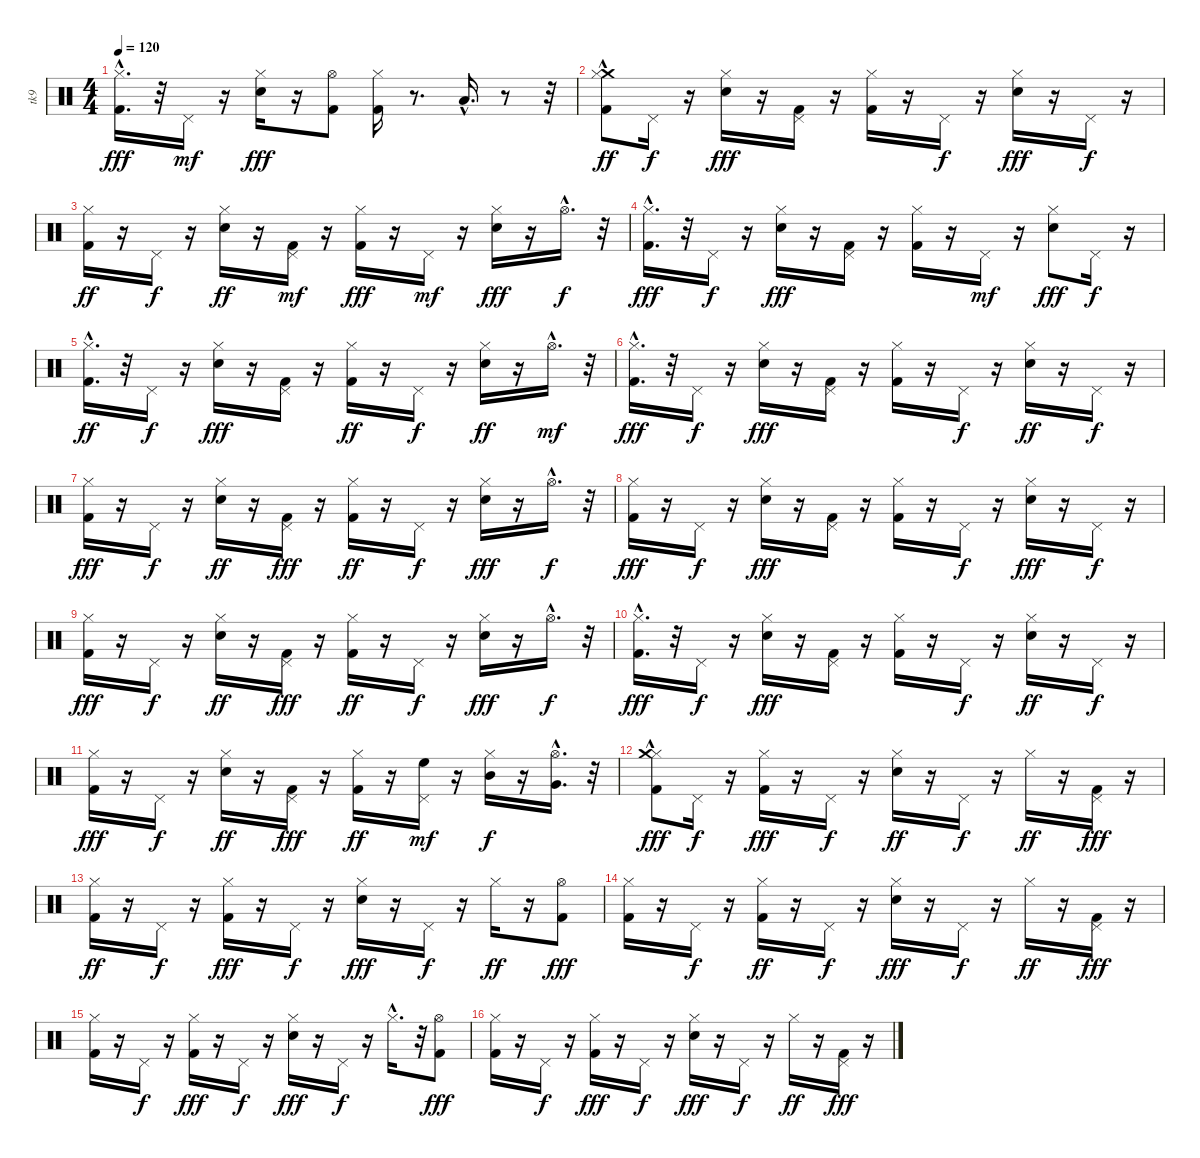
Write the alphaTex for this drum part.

\track ("tk9" "tk9") {instrument percussion}
\staff {score}
\articulation defaults
\ts (4 4)
\tempo 120
\clef neutral
\ks c
("Hi-Hat (closed)" "Kick (hit) 2"{hac}).16{d dy fff} r.32 "Pedal Hi-Hat (hit)".16{dy mf} r.16 ("Snare (hit) 2" "Hi-Hat (closed)").16{dy fff} r.16 ("Kick (hit) 2" "Hi-Hat (open)").8 ("Hi-Hat (closed)" "Kick (hit) 2").16 r.8{d} "Low Tom (hit)"{hac}.16{d} r.8 r.32 |
("Kick (hit) 2"{hac} "Crash medium (hit)" "Hi-Hat (closed)").8{dy ff} "Pedal Hi-Hat (hit)".16{dy f} r.16 ("Hi-Hat (closed)" "Snare (hit) 2").16{dy fff} r.16 ("Pedal Hi-Hat (hit)" "Kick (hit) 2").16 r.16 ("Hi-Hat (closed)" "Kick (hit) 2").16 r.16 "Pedal Hi-Hat (hit)".16{dy f} r.16 ("Hi-Hat (closed)" "Snare (hit) 2").16{dy fff} r.16 "Pedal Hi-Hat (hit)".16{dy f} r.16 |
("Kick (hit) 2" "Hi-Hat (closed)").16{dy ff} r.16 "Pedal Hi-Hat (hit)".16{dy f} r.16 ("Snare (hit) 2" "Hi-Hat (closed)").16{dy ff} r.16 ("Kick (hit) 2" "Pedal Hi-Hat (hit)").16{dy mf} r.16 ("Hi-Hat (closed)" "Kick (hit) 2").16{dy fff} r.16 "Pedal Hi-Hat (hit)".16{dy mf} r.16 ("Hi-Hat (closed)" "Snare (hit) 2").16{dy fff} r.16 "Hi-Hat (open)"{hac}.16{d dy f} r.32 |
("Hi-Hat (closed)"{hac} "Kick (hit) 2").16{d dy fff} r.32 "Pedal Hi-Hat (hit)".16{dy f} r.16 ("Hi-Hat (closed)" "Snare (hit) 2").16{dy fff} r.16 ("Pedal Hi-Hat (hit)" "Kick (hit) 2").16 r.16 ("Hi-Hat (closed)" "Kick (hit) 2").16 r.16 "Pedal Hi-Hat (hit)".16{dy mf} r.16 ("Hi-Hat (closed)" "Snare (hit) 2").8{dy fff} "Pedal Hi-Hat (hit)".16{dy f} r.16 |
("Kick (hit) 2"{hac} "Hi-Hat (closed)"{hac}).16{d dy ff} r.32 "Pedal Hi-Hat (hit)".16{dy f} r.16 ("Hi-Hat (closed)" "Snare (hit) 2").16{dy fff} r.16 ("Pedal Hi-Hat (hit)" "Kick (hit) 2").16 r.16 ("Kick (hit) 2" "Hi-Hat (closed)").16{dy ff} r.16 "Pedal Hi-Hat (hit)".16{dy f} r.16 ("Snare (hit) 2" "Hi-Hat (closed)").16{dy ff} r.16 "Hi-Hat (open)"{hac}.16{d dy mf} r.32 |
("Hi-Hat (closed)"{hac} "Kick (hit) 2"{hac}).16{d dy fff} r.32 "Pedal Hi-Hat (hit)".16{dy f} r.16 ("Hi-Hat (closed)" "Snare (hit) 2").16{dy fff} r.16 ("Pedal Hi-Hat (hit)" "Kick (hit) 2").16 r.16 ("Hi-Hat (closed)" "Kick (hit) 2").16 r.16 "Pedal Hi-Hat (hit)".16{dy f} r.16 ("Snare (hit) 2" "Hi-Hat (closed)").16{dy ff} r.16 "Pedal Hi-Hat (hit)".16{dy f} r.16 |
("Hi-Hat (closed)" "Kick (hit) 2").16{dy fff} r.16 "Pedal Hi-Hat (hit)".16{dy f} r.16 ("Snare (hit) 2" "Hi-Hat (closed)").16{dy ff} r.16 ("Kick (hit) 2" "Pedal Hi-Hat (hit)").16{dy fff} r.16 ("Kick (hit) 2" "Hi-Hat (closed)").16{dy ff} r.16 "Pedal Hi-Hat (hit)".16{dy f} r.16 ("Snare (hit) 2" "Hi-Hat (closed)").16{dy fff} r.16 "Hi-Hat (open)"{hac}.16{d dy f} r.32 |
("Hi-Hat (closed)" "Kick (hit) 2").16{dy fff} r.16 "Pedal Hi-Hat (hit)".16{dy f} r.16 ("Hi-Hat (closed)" "Snare (hit) 2").16{dy fff} r.16 ("Pedal Hi-Hat (hit)" "Kick (hit) 2").16 r.16 ("Hi-Hat (closed)" "Kick (hit) 2").16 r.16 "Pedal Hi-Hat (hit)".16{dy f} r.16 ("Hi-Hat (closed)" "Snare (hit) 2").16{dy fff} r.16 "Pedal Hi-Hat (hit)".16{dy f} r.16 |
("Hi-Hat (closed)" "Kick (hit) 2").16{dy fff} r.16 "Pedal Hi-Hat (hit)".16{dy f} r.16 ("Snare (hit) 2" "Hi-Hat (closed)").16{dy ff} r.16 ("Kick (hit) 2" "Pedal Hi-Hat (hit)").16{dy fff} r.16 ("Kick (hit) 2" "Hi-Hat (closed)").16{dy ff} r.16 "Pedal Hi-Hat (hit)".16{dy f} r.16 ("Snare (hit) 2" "Hi-Hat (closed)").16{dy fff} r.16 "Hi-Hat (open)"{hac}.16{d dy f} r.32 |
("Hi-Hat (closed)"{hac} "Kick (hit) 2"{hac}).16{d dy fff} r.32 "Pedal Hi-Hat (hit)".16{dy f} r.16 ("Hi-Hat (closed)" "Snare (hit) 2").16{dy fff} r.16 ("Pedal Hi-Hat (hit)" "Kick (hit) 2").16 r.16 ("Hi-Hat (closed)" "Kick (hit) 2").16 r.16 "Pedal Hi-Hat (hit)".16{dy f} r.16 ("Snare (hit) 2" "Hi-Hat (closed)").16{dy ff} r.16 "Pedal Hi-Hat (hit)".16{dy f} r.16 |
("Hi-Hat (closed)" "Kick (hit) 2").16{dy fff} r.16 "Pedal Hi-Hat (hit)".16{dy f} r.16 ("Snare (hit) 2" "Hi-Hat (closed)").16{dy ff} r.16 ("Kick (hit) 2" "Pedal Hi-Hat (hit)").16{dy fff} r.16 ("Kick (hit) 2" "Hi-Hat (closed)").16{dy ff} r.16 ("Pedal Hi-Hat (hit)" "High Floor Tom (hit)").16{dy mf} r.16 ("Hi-Hat (closed)" "Mid Tom (hit)").16{dy f} r.16 ("Hi-Hat (open)"{hac} "Very Low Tom (hit)").16{d} r.32 |
("Hi-Hat (closed)" "Crash medium (hit)"{hac} "Kick (hit) 2").8{dy fff} "Pedal Hi-Hat (hit)".16{dy f} r.16 ("Hi-Hat (closed)" "Kick (hit) 2").16{dy fff} r.16 "Pedal Hi-Hat (hit)".16{dy f} r.16 ("Snare (hit) 2" "Hi-Hat (closed)").16{dy ff} r.16 "Pedal Hi-Hat (hit)".16{dy f} r.16 "Hi-Hat (closed)".16{dy ff} r.16 ("Kick (hit) 2" "Pedal Hi-Hat (hit)").16{dy fff} r.16 |
("Kick (hit) 2" "Hi-Hat (closed)").16{dy ff} r.16 "Pedal Hi-Hat (hit)".16{dy f} r.16 ("Hi-Hat (closed)" "Kick (hit) 2").16{dy fff} r.16 "Pedal Hi-Hat (hit)".16{dy f} r.16 ("Hi-Hat (closed)" "Snare (hit) 2").16{dy fff} r.16 "Pedal Hi-Hat (hit)".16{dy f} r.16 "Hi-Hat (closed)".16{dy ff} r.16 ("Hi-Hat (open)" "Kick (hit) 2").8{dy fff} |
("Hi-Hat (closed)" "Kick (hit) 2").16 r.16 "Pedal Hi-Hat (hit)".16{dy f} r.16 ("Kick (hit) 2" "Hi-Hat (closed)").16{dy ff} r.16 "Pedal Hi-Hat (hit)".16{dy f} r.16 ("Hi-Hat (closed)" "Snare (hit) 2").16{dy fff} r.16 "Pedal Hi-Hat (hit)".16{dy f} r.16 "Hi-Hat (closed)".16{dy ff} r.16 ("Pedal Hi-Hat (hit)" "Kick (hit) 2").16{dy fff} r.16 |
("Hi-Hat (closed)" "Kick (hit) 2").16 r.16 "Pedal Hi-Hat (hit)".16{dy f} r.16 ("Hi-Hat (closed)" "Kick (hit) 2").16{dy fff} r.16 "Pedal Hi-Hat (hit)".16{dy f} r.16 ("Hi-Hat (closed)" "Snare (hit) 2").16{dy fff} r.16 "Pedal Hi-Hat (hit)".16{dy f} r.16 "Hi-Hat (closed)"{hac}.16{d} r.32 ("Kick (hit) 2" "Hi-Hat (open)").8{dy fff} |
("Hi-Hat (closed)" "Kick (hit) 2").16 r.16 "Pedal Hi-Hat (hit)".16{dy f} r.16 ("Hi-Hat (closed)" "Kick (hit) 2").16{dy fff} r.16 "Pedal Hi-Hat (hit)".16{dy f} r.16 ("Hi-Hat (closed)" "Snare (hit) 2").16{dy fff} r.16 "Pedal Hi-Hat (hit)".16{dy f} r.16 "Hi-Hat (closed)".16{dy ff} r.16 ("Pedal Hi-Hat (hit)" "Kick (hit) 2").16{dy fff} r.16
